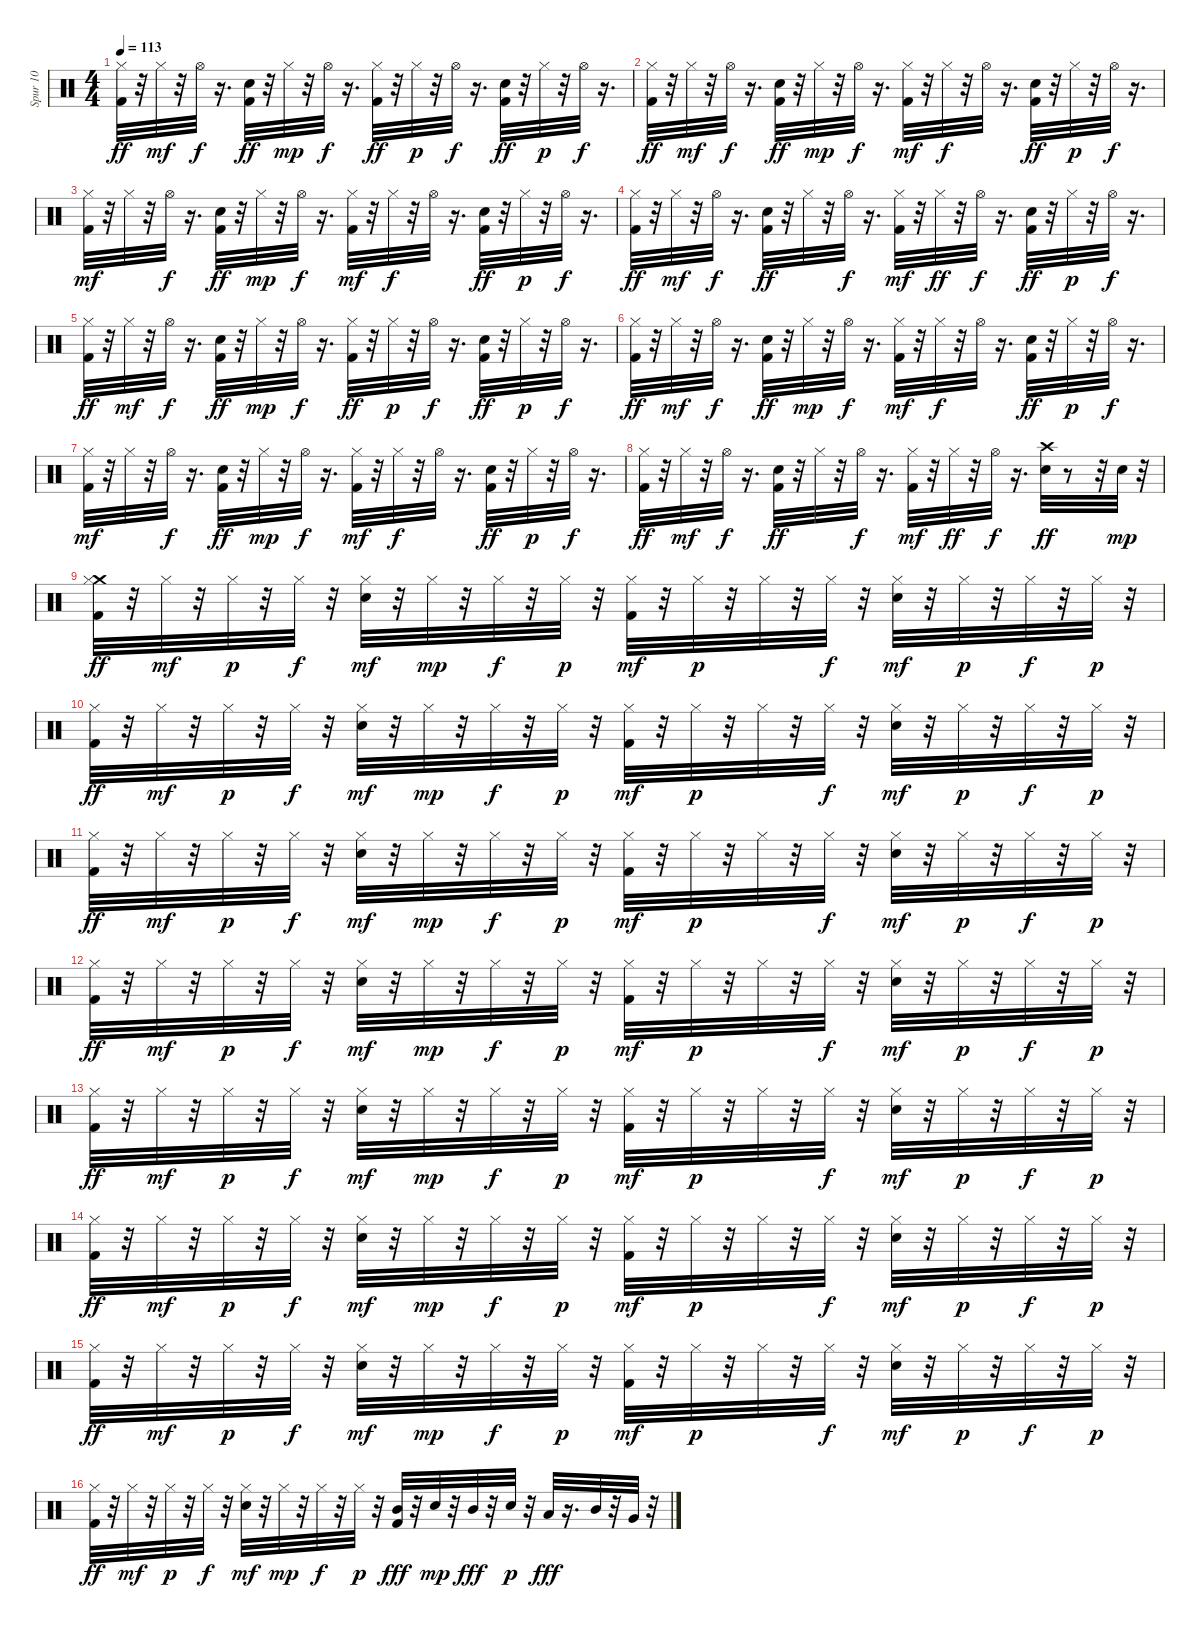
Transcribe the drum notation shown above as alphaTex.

\track ("Spur 10" "Spur 10") {instrument percussion}
\staff {score}
\articulation defaults
\ts (4 4)
\tempo 113
\clef neutral
\ks c
("Kick (hit) 2" "Hi-Hat (closed)").32{dy ff} r.32 "Hi-Hat (closed)".32{dy mf} r.32 "Hi-Hat (open)".32{dy f} r.16{d} ("Kick (hit) 2" "Snare (hit) 2").32{dy ff} r.32 "Hi-Hat (closed)".32{dy mp} r.32 "Hi-Hat (open)".32{dy f} r.16{d} ("Kick (hit) 2" "Hi-Hat (closed)").32{dy ff} r.32 "Hi-Hat (closed)".32{dy p} r.32 "Hi-Hat (open)".32{dy f} r.16{d} ("Kick (hit) 2" "Snare (hit) 2").32{dy ff} r.32 "Hi-Hat (closed)".32{dy p} r.32 "Hi-Hat (open)".32{dy f} r.16{d} |
("Kick (hit) 2" "Hi-Hat (closed)").32{dy ff} r.32 "Hi-Hat (closed)".32{dy mf} r.32 "Hi-Hat (open)".32{dy f} r.16{d} ("Kick (hit) 2" "Snare (hit) 2").32{dy ff} r.32 "Hi-Hat (closed)".32{dy mp} r.32 "Hi-Hat (open)".32{dy f} r.16{d} ("Kick (hit) 2" "Hi-Hat (closed)").32{dy mf} r.32 "Hi-Hat (closed)".32{dy f} r.32 "Hi-Hat (open)".32 r.16{d} ("Kick (hit) 2" "Snare (hit) 2").32{dy ff} r.32 "Hi-Hat (closed)".32{dy p} r.32 "Hi-Hat (open)".32{dy f} r.16{d} |
("Kick (hit) 2" "Hi-Hat (closed)").32{dy mf} r.32 "Hi-Hat (closed)".32 r.32 "Hi-Hat (open)".32{dy f} r.16{d} ("Kick (hit) 2" "Snare (hit) 2").32{dy ff} r.32 "Hi-Hat (closed)".32{dy mp} r.32 "Hi-Hat (open)".32{dy f} r.16{d} ("Kick (hit) 2" "Hi-Hat (closed)").32{dy mf} r.32 "Hi-Hat (closed)".32{dy f} r.32 "Hi-Hat (open)".32 r.16{d} ("Kick (hit) 2" "Snare (hit) 2").32{dy ff} r.32 "Hi-Hat (closed)".32{dy p} r.32 "Hi-Hat (open)".32{dy f} r.16{d} |
("Kick (hit) 2" "Hi-Hat (closed)").32{dy ff} r.32 "Hi-Hat (closed)".32{dy mf} r.32 "Hi-Hat (open)".32{dy f} r.16{d} ("Kick (hit) 2" "Snare (hit) 2").32{dy ff} r.32 "Hi-Hat (closed)".32 r.32 "Hi-Hat (open)".32{dy f} r.16{d} ("Kick (hit) 2" "Hi-Hat (closed)").32{dy mf} r.32 "Hi-Hat (closed)".32{dy ff} r.32 "Hi-Hat (open)".32{dy f} r.16{d} ("Kick (hit) 2" "Snare (hit) 2").32{dy ff} r.32 "Hi-Hat (closed)".32{dy p} r.32 "Hi-Hat (open)".32{dy f} r.16{d} |
("Kick (hit) 2" "Hi-Hat (closed)").32{dy ff} r.32 "Hi-Hat (closed)".32{dy mf} r.32 "Hi-Hat (open)".32{dy f} r.16{d} ("Kick (hit) 2" "Snare (hit) 2").32{dy ff} r.32 "Hi-Hat (closed)".32{dy mp} r.32 "Hi-Hat (open)".32{dy f} r.16{d} ("Kick (hit) 2" "Hi-Hat (closed)").32{dy ff} r.32 "Hi-Hat (closed)".32{dy p} r.32 "Hi-Hat (open)".32{dy f} r.16{d} ("Kick (hit) 2" "Snare (hit) 2").32{dy ff} r.32 "Hi-Hat (closed)".32{dy p} r.32 "Hi-Hat (open)".32{dy f} r.16{d} |
("Kick (hit) 2" "Hi-Hat (closed)").32{dy ff} r.32 "Hi-Hat (closed)".32{dy mf} r.32 "Hi-Hat (open)".32{dy f} r.16{d} ("Kick (hit) 2" "Snare (hit) 2").32{dy ff} r.32 "Hi-Hat (closed)".32{dy mp} r.32 "Hi-Hat (open)".32{dy f} r.16{d} ("Kick (hit) 2" "Hi-Hat (closed)").32{dy mf} r.32 "Hi-Hat (closed)".32{dy f} r.32 "Hi-Hat (open)".32 r.16{d} ("Kick (hit) 2" "Snare (hit) 2").32{dy ff} r.32 "Hi-Hat (closed)".32{dy p} r.32 "Hi-Hat (open)".32{dy f} r.16{d} |
("Kick (hit) 2" "Hi-Hat (closed)").32{dy mf} r.32 "Hi-Hat (closed)".32 r.32 "Hi-Hat (open)".32{dy f} r.16{d} ("Kick (hit) 2" "Snare (hit) 2").32{dy ff} r.32 "Hi-Hat (closed)".32{dy mp} r.32 "Hi-Hat (open)".32{dy f} r.16{d} ("Kick (hit) 2" "Hi-Hat (closed)").32{dy mf} r.32 "Hi-Hat (closed)".32{dy f} r.32 "Hi-Hat (open)".32 r.16{d} ("Kick (hit) 2" "Snare (hit) 2").32{dy ff} r.32 "Hi-Hat (closed)".32{dy p} r.32 "Hi-Hat (open)".32{dy f} r.16{d} |
("Kick (hit) 2" "Hi-Hat (closed)").32{dy ff} r.32 "Hi-Hat (closed)".32{dy mf} r.32 "Hi-Hat (open)".32{dy f} r.16{d} ("Kick (hit) 2" "Snare (hit) 2").32{dy ff} r.32 "Hi-Hat (closed)".32 r.32 "Hi-Hat (open)".32{dy f} r.16{d} ("Kick (hit) 2" "Hi-Hat (closed)").32{dy mf} r.32 "Hi-Hat (closed)".32{dy ff} r.32 "Hi-Hat (open)".32{dy f} r.16{d} ("Snare (hit) 2" "Crash high (hit)").32{dy ff} r.8 r.32 "Snare (hit) 2".32{dy mp} r.32 |
("Crash medium (hit)" "Kick (hit) 2" "Hi-Hat (closed)").32{dy ff} r.32 "Hi-Hat (closed)".32{dy mf} r.32 "Hi-Hat (closed)".32{dy p} r.32 "Hi-Hat (closed)".32{dy f} r.32 ("Snare (hit) 2" "Hi-Hat (closed)").32{dy mf} r.32 "Hi-Hat (closed)".32{dy mp} r.32 "Hi-Hat (closed)".32{dy f} r.32 "Hi-Hat (closed)".32{dy p} r.32 ("Kick (hit) 2" "Hi-Hat (closed)").32{dy mf} r.32 "Hi-Hat (closed)".32{dy p} r.32 "Hi-Hat (closed)".32 r.32 "Hi-Hat (closed)".32{dy f} r.32 ("Snare (hit) 2" "Hi-Hat (closed)").32{dy mf} r.32 "Hi-Hat (closed)".32{dy p} r.32 "Hi-Hat (closed)".32{dy f} r.32 "Hi-Hat (closed)".32{dy p} r.32 |
("Kick (hit) 2" "Hi-Hat (closed)").32{dy ff} r.32 "Hi-Hat (closed)".32{dy mf} r.32 "Hi-Hat (closed)".32{dy p} r.32 "Hi-Hat (closed)".32{dy f} r.32 ("Snare (hit) 2" "Hi-Hat (closed)").32{dy mf} r.32 "Hi-Hat (closed)".32{dy mp} r.32 "Hi-Hat (closed)".32{dy f} r.32 "Hi-Hat (closed)".32{dy p} r.32 ("Kick (hit) 2" "Hi-Hat (closed)").32{dy mf} r.32 "Hi-Hat (closed)".32{dy p} r.32 "Hi-Hat (closed)".32 r.32 "Hi-Hat (closed)".32{dy f} r.32 ("Snare (hit) 2" "Hi-Hat (closed)").32{dy mf} r.32 "Hi-Hat (closed)".32{dy p} r.32 "Hi-Hat (closed)".32{dy f} r.32 "Hi-Hat (closed)".32{dy p} r.32 |
("Kick (hit) 2" "Hi-Hat (closed)").32{dy ff} r.32 "Hi-Hat (closed)".32{dy mf} r.32 "Hi-Hat (closed)".32{dy p} r.32 "Hi-Hat (closed)".32{dy f} r.32 ("Snare (hit) 2" "Hi-Hat (closed)").32{dy mf} r.32 "Hi-Hat (closed)".32{dy mp} r.32 "Hi-Hat (closed)".32{dy f} r.32 "Hi-Hat (closed)".32{dy p} r.32 ("Kick (hit) 2" "Hi-Hat (closed)").32{dy mf} r.32 "Hi-Hat (closed)".32{dy p} r.32 "Hi-Hat (closed)".32 r.32 "Hi-Hat (closed)".32{dy f} r.32 ("Snare (hit) 2" "Hi-Hat (closed)").32{dy mf} r.32 "Hi-Hat (closed)".32{dy p} r.32 "Hi-Hat (closed)".32{dy f} r.32 "Hi-Hat (closed)".32{dy p} r.32 |
("Kick (hit) 2" "Hi-Hat (closed)").32{dy ff} r.32 "Hi-Hat (closed)".32{dy mf} r.32 "Hi-Hat (closed)".32{dy p} r.32 "Hi-Hat (closed)".32{dy f} r.32 ("Snare (hit) 2" "Hi-Hat (closed)").32{dy mf} r.32 "Hi-Hat (closed)".32{dy mp} r.32 "Hi-Hat (closed)".32{dy f} r.32 "Hi-Hat (closed)".32{dy p} r.32 ("Kick (hit) 2" "Hi-Hat (closed)").32{dy mf} r.32 "Hi-Hat (closed)".32{dy p} r.32 "Hi-Hat (closed)".32 r.32 "Hi-Hat (closed)".32{dy f} r.32 ("Snare (hit) 2" "Hi-Hat (closed)").32{dy mf} r.32 "Hi-Hat (closed)".32{dy p} r.32 "Hi-Hat (closed)".32{dy f} r.32 "Hi-Hat (closed)".32{dy p} r.32 |
("Kick (hit) 2" "Hi-Hat (closed)").32{dy ff} r.32 "Hi-Hat (closed)".32{dy mf} r.32 "Hi-Hat (closed)".32{dy p} r.32 "Hi-Hat (closed)".32{dy f} r.32 ("Snare (hit) 2" "Hi-Hat (closed)").32{dy mf} r.32 "Hi-Hat (closed)".32{dy mp} r.32 "Hi-Hat (closed)".32{dy f} r.32 "Hi-Hat (closed)".32{dy p} r.32 ("Kick (hit) 2" "Hi-Hat (closed)").32{dy mf} r.32 "Hi-Hat (closed)".32{dy p} r.32 "Hi-Hat (closed)".32 r.32 "Hi-Hat (closed)".32{dy f} r.32 ("Snare (hit) 2" "Hi-Hat (closed)").32{dy mf} r.32 "Hi-Hat (closed)".32{dy p} r.32 "Hi-Hat (closed)".32{dy f} r.32 "Hi-Hat (closed)".32{dy p} r.32 |
("Kick (hit) 2" "Hi-Hat (closed)").32{dy ff} r.32 "Hi-Hat (closed)".32{dy mf} r.32 "Hi-Hat (closed)".32{dy p} r.32 "Hi-Hat (closed)".32{dy f} r.32 ("Snare (hit) 2" "Hi-Hat (closed)").32{dy mf} r.32 "Hi-Hat (closed)".32{dy mp} r.32 "Hi-Hat (closed)".32{dy f} r.32 "Hi-Hat (closed)".32{dy p} r.32 ("Kick (hit) 2" "Hi-Hat (closed)").32{dy mf} r.32 "Hi-Hat (closed)".32{dy p} r.32 "Hi-Hat (closed)".32 r.32 "Hi-Hat (closed)".32{dy f} r.32 ("Snare (hit) 2" "Hi-Hat (closed)").32{dy mf} r.32 "Hi-Hat (closed)".32{dy p} r.32 "Hi-Hat (closed)".32{dy f} r.32 "Hi-Hat (closed)".32{dy p} r.32 |
("Kick (hit) 2" "Hi-Hat (closed)").32{dy ff} r.32 "Hi-Hat (closed)".32{dy mf} r.32 "Hi-Hat (closed)".32{dy p} r.32 "Hi-Hat (closed)".32{dy f} r.32 ("Snare (hit) 2" "Hi-Hat (closed)").32{dy mf} r.32 "Hi-Hat (closed)".32{dy mp} r.32 "Hi-Hat (closed)".32{dy f} r.32 "Hi-Hat (closed)".32{dy p} r.32 ("Kick (hit) 2" "Hi-Hat (closed)").32{dy mf} r.32 "Hi-Hat (closed)".32{dy p} r.32 "Hi-Hat (closed)".32 r.32 "Hi-Hat (closed)".32{dy f} r.32 ("Snare (hit) 2" "Hi-Hat (closed)").32{dy mf} r.32 "Hi-Hat (closed)".32{dy p} r.32 "Hi-Hat (closed)".32{dy f} r.32 "Hi-Hat (closed)".32{dy p} r.32 |
("Kick (hit) 2" "Hi-Hat (closed)").32{dy ff} r.32 "Hi-Hat (closed)".32{dy mf} r.32 "Hi-Hat (closed)".32{dy p} r.32 "Hi-Hat (closed)".32{dy f} r.32 ("Snare (hit) 2" "Hi-Hat (closed)").32{dy mf} r.32 "Hi-Hat (closed)".32{dy mp} r.32 "Hi-Hat (closed)".32{dy f} r.32 "Hi-Hat (closed)".32{dy p} r.32 ("Kick (hit) 2" "Mid Tom (hit)").32{dy fff} r.32 "Snare (hit) 2".32{dy mp} r.32 "Mid Tom (hit)".32{dy fff} r.32 "Snare (hit) 2".32{dy p} r.32 "Low Tom (hit)".32{dy fff} r.16{d} "Mid Tom (hit)".32 r.32 "Very Low Tom (hit)".32 r.32
